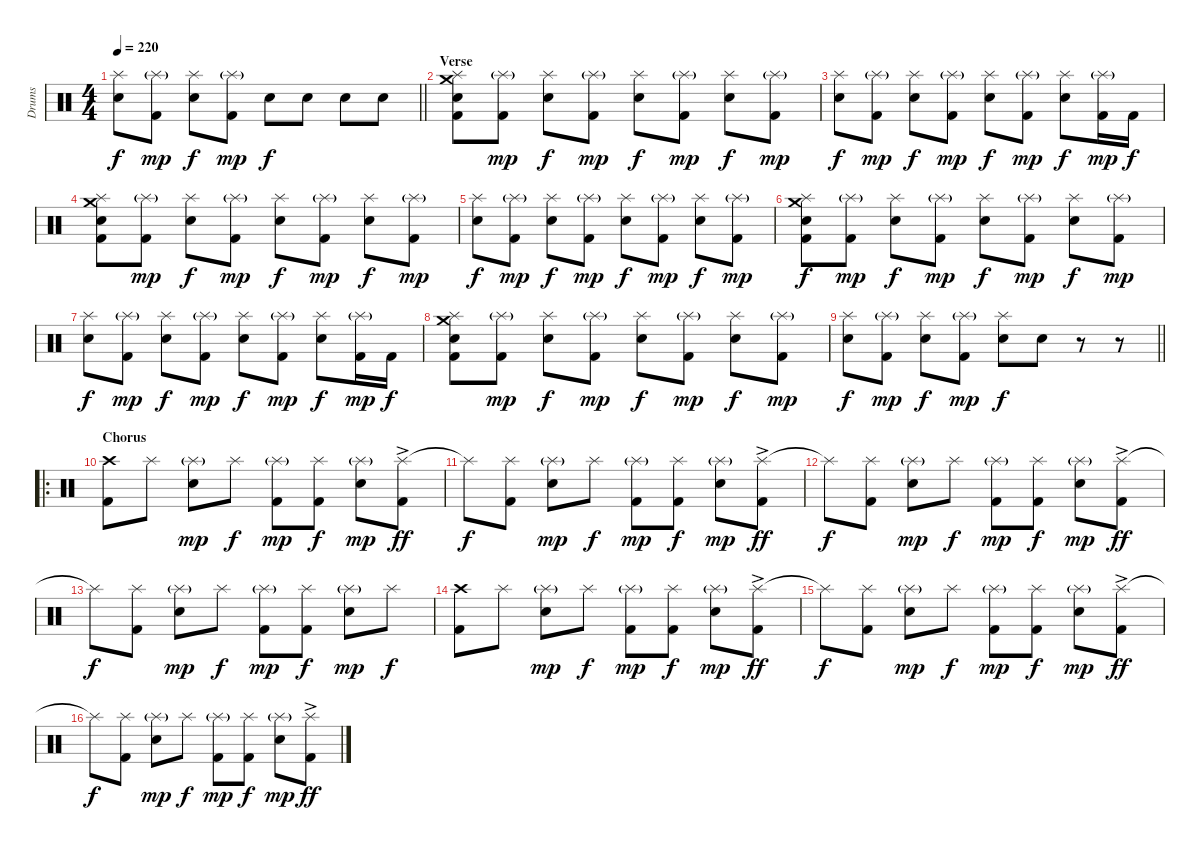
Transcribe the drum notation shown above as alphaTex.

\track ("Drums" "Drums") {instrument percussion}
\staff {score}
\articulation defaults
\ts (4 4)
\tempo 220
\clef neutral
\barLineRight lightlight
\ks c
("Splash (hit)" "Electric Snare (hit)").8{dy f} ("Splash (hit)"{g} "Kick (hit) 2").8{dy mp} ("Splash (hit)" "Electric Snare (hit)").8{dy f} ("Splash (hit)"{g} "Kick (hit) 2").8{dy mp} "Electric Snare (hit)".8{dy f} "Electric Snare (hit)".8 "Electric Snare (hit)".8 "Electric Snare (hit)".8 |
\section ("" "Verse")
("Crash medium (hit)" "Splash (hit)" "Electric Snare (hit)" "Kick (hit) 2").8 ("Splash (hit)"{g} "Kick (hit) 2").8{dy mp} ("Splash (hit)" "Electric Snare (hit)").8{dy f} ("Splash (hit)"{g} "Kick (hit) 2").8{dy mp} ("Splash (hit)" "Electric Snare (hit)").8{dy f} ("Splash (hit)"{g} "Kick (hit) 2").8{dy mp} ("Splash (hit)" "Electric Snare (hit)").8{dy f} ("Splash (hit)"{g} "Kick (hit) 2").8{dy mp} |
("Splash (hit)" "Electric Snare (hit)").8{dy f} ("Splash (hit)"{g} "Kick (hit) 2").8{dy mp} ("Splash (hit)" "Electric Snare (hit)").8{dy f} ("Splash (hit)"{g} "Kick (hit) 2").8{dy mp} ("Splash (hit)" "Electric Snare (hit)").8{dy f} ("Splash (hit)"{g} "Kick (hit) 2").8{dy mp} ("Splash (hit)" "Electric Snare (hit)").8{dy f} ("Splash (hit)"{g} "Kick (hit) 2").16{dy mp} "Kick (hit) 2".16{dy f} |
("Crash medium (hit)" "Splash (hit)" "Electric Snare (hit)" "Kick (hit) 2").8 ("Splash (hit)"{g} "Kick (hit) 2").8{dy mp} ("Splash (hit)" "Electric Snare (hit)").8{dy f} ("Splash (hit)"{g} "Kick (hit) 2").8{dy mp} ("Splash (hit)" "Electric Snare (hit)").8{dy f} ("Splash (hit)"{g} "Kick (hit) 2").8{dy mp} ("Splash (hit)" "Electric Snare (hit)").8{dy f} ("Splash (hit)"{g} "Kick (hit) 2").8{dy mp} |
("Splash (hit)" "Electric Snare (hit)").8{dy f} ("Splash (hit)"{g} "Kick (hit) 2").8{dy mp} ("Splash (hit)" "Electric Snare (hit)").8{dy f} ("Splash (hit)"{g} "Kick (hit) 2").8{dy mp} ("Splash (hit)" "Electric Snare (hit)").8{dy f} ("Splash (hit)"{g} "Kick (hit) 2").8{dy mp} ("Splash (hit)" "Electric Snare (hit)").8{dy f} ("Splash (hit)"{g} "Kick (hit) 2").8{dy mp} |
("Crash medium (hit)" "Splash (hit)" "Electric Snare (hit)" "Kick (hit) 2").8{dy f} ("Splash (hit)"{g} "Kick (hit) 2").8{dy mp} ("Splash (hit)" "Electric Snare (hit)").8{dy f} ("Splash (hit)"{g} "Kick (hit) 2").8{dy mp} ("Splash (hit)" "Electric Snare (hit)").8{dy f} ("Splash (hit)"{g} "Kick (hit) 2").8{dy mp} ("Splash (hit)" "Electric Snare (hit)").8{dy f} ("Splash (hit)"{g} "Kick (hit) 2").8{dy mp} |
("Splash (hit)" "Electric Snare (hit)").8{dy f} ("Splash (hit)"{g} "Kick (hit) 2").8{dy mp} ("Splash (hit)" "Electric Snare (hit)").8{dy f} ("Splash (hit)"{g} "Kick (hit) 2").8{dy mp} ("Splash (hit)" "Electric Snare (hit)").8{dy f} ("Splash (hit)"{g} "Kick (hit) 2").8{dy mp} ("Splash (hit)" "Electric Snare (hit)").8{dy f} ("Splash (hit)"{g} "Kick (hit) 2").16{dy mp} "Kick (hit) 2".16{dy f} |
("Crash medium (hit)" "Splash (hit)" "Electric Snare (hit)" "Kick (hit) 2").8 ("Splash (hit)"{g} "Kick (hit) 2").8{dy mp} ("Splash (hit)" "Electric Snare (hit)").8{dy f} ("Splash (hit)"{g} "Kick (hit) 2").8{dy mp} ("Splash (hit)" "Electric Snare (hit)").8{dy f} ("Splash (hit)"{g} "Kick (hit) 2").8{dy mp} ("Splash (hit)" "Electric Snare (hit)").8{dy f} ("Splash (hit)"{g} "Kick (hit) 2").8{dy mp} |
\barLineRight lightlight
("Splash (hit)" "Electric Snare (hit)").8{dy f} ("Splash (hit)"{g} "Kick (hit) 2").8{dy mp} ("Splash (hit)" "Electric Snare (hit)").8{dy f} ("Splash (hit)"{g} "Kick (hit) 2").8{dy mp} ("Splash (hit)" "Electric Snare (hit)").8{dy f} "Electric Snare (hit)".8 r.8 r.8 |
\ro
\section ("" "Chorus")
("Crash high (hit)" "Kick (hit) 2").8 "Splash (hit)".8 ("Splash (hit)"{g} "Electric Snare (hit)").8{dy mp} "Splash (hit)".8{dy f} ("Splash (hit)"{g} "Kick (hit) 2").8{dy mp} ("Splash (hit)" "Kick (hit) 2").8{dy f} ("Splash (hit)"{g} "Electric Snare (hit)").8{dy mp} ("Splash (hit)"{ac} "Kick (hit) 2").8{dy ff} |
"Splash (hit)"{t}.8{dy f} ("Splash (hit)" "Kick (hit) 2").8 ("Splash (hit)"{g} "Electric Snare (hit)").8{dy mp} "Splash (hit)".8{dy f} ("Splash (hit)"{g} "Kick (hit) 2").8{dy mp} ("Splash (hit)" "Kick (hit) 2").8{dy f} ("Splash (hit)"{g} "Electric Snare (hit)").8{dy mp} ("Splash (hit)"{ac} "Kick (hit) 2").8{dy ff} |
"Splash (hit)"{t}.8{dy f} ("Splash (hit)" "Kick (hit) 2").8 ("Splash (hit)"{g} "Electric Snare (hit)").8{dy mp} "Splash (hit)".8{dy f} ("Splash (hit)"{g} "Kick (hit) 2").8{dy mp} ("Splash (hit)" "Kick (hit) 2").8{dy f} ("Splash (hit)"{g} "Electric Snare (hit)").8{dy mp} ("Splash (hit)"{ac} "Kick (hit) 2").8{dy ff} |
"Splash (hit)"{t}.8{dy f} ("Splash (hit)" "Kick (hit) 2").8 ("Splash (hit)"{g} "Electric Snare (hit)").8{dy mp} "Splash (hit)".8{dy f} ("Splash (hit)"{g} "Kick (hit) 2").8{dy mp} ("Splash (hit)" "Kick (hit) 2").8{dy f} ("Splash (hit)"{g} "Electric Snare (hit)").8{dy mp} "Splash (hit)".8{dy f} |
("Crash high (hit)" "Kick (hit) 2").8 "Splash (hit)".8 ("Splash (hit)"{g} "Electric Snare (hit)").8{dy mp} "Splash (hit)".8{dy f} ("Splash (hit)"{g} "Kick (hit) 2").8{dy mp} ("Splash (hit)" "Kick (hit) 2").8{dy f} ("Splash (hit)"{g} "Electric Snare (hit)").8{dy mp} ("Splash (hit)"{ac} "Kick (hit) 2").8{dy ff} |
"Splash (hit)"{t}.8{dy f} ("Splash (hit)" "Kick (hit) 2").8 ("Splash (hit)"{g} "Electric Snare (hit)").8{dy mp} "Splash (hit)".8{dy f} ("Splash (hit)"{g} "Kick (hit) 2").8{dy mp} ("Splash (hit)" "Kick (hit) 2").8{dy f} ("Splash (hit)"{g} "Electric Snare (hit)").8{dy mp} ("Splash (hit)"{ac} "Kick (hit) 2").8{dy ff} |
"Splash (hit)"{t}.8{dy f} ("Splash (hit)" "Kick (hit) 2").8 ("Splash (hit)"{g} "Electric Snare (hit)").8{dy mp} "Splash (hit)".8{dy f} ("Splash (hit)"{g} "Kick (hit) 2").8{dy mp} ("Splash (hit)" "Kick (hit) 2").8{dy f} ("Splash (hit)"{g} "Electric Snare (hit)").8{dy mp} ("Splash (hit)"{ac} "Kick (hit) 2").8{dy ff}
